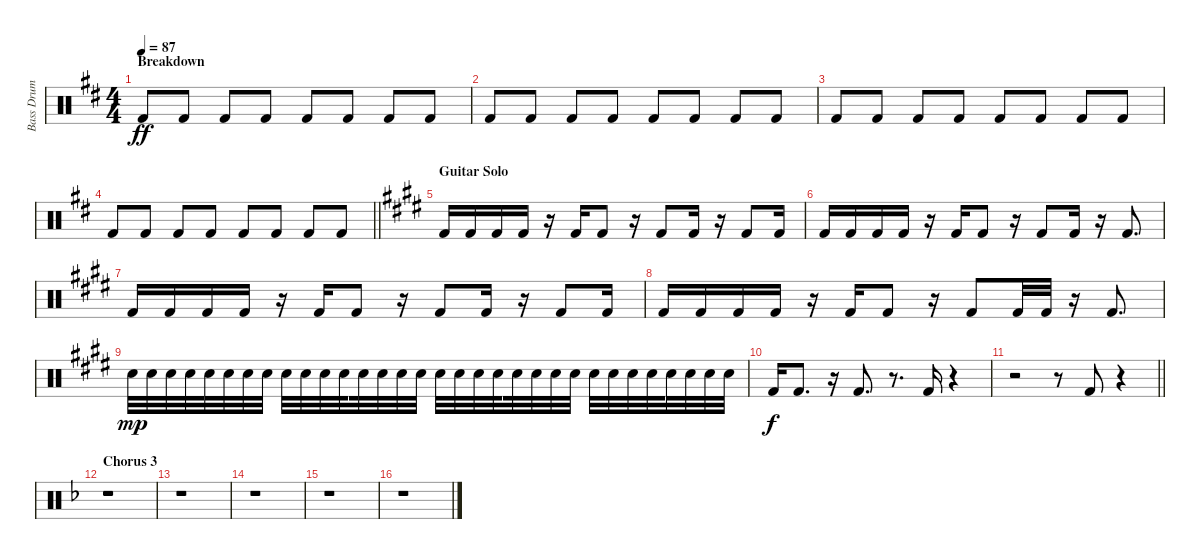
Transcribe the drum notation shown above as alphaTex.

\track ("Bass Drum" "Bass Drum") {instrument percussion}
\staff {score}
\articulation defaults
\ts (4 4)
\section ("" "Breakdown")
\tempo 87
\clef neutral
\ks bminor "Kick (hit) 2".8{dy ff} "Kick (hit) 2".8 "Kick (hit) 2".8 "Kick (hit) 2".8 "Kick (hit) 2".8 "Kick (hit) 2".8 "Kick (hit) 2".8 "Kick (hit) 2".8
|
"Kick (hit) 2".8 "Kick (hit) 2".8 "Kick (hit) 2".8 "Kick (hit) 2".8 "Kick (hit) 2".8 "Kick (hit) 2".8 "Kick (hit) 2".8 "Kick (hit) 2".8 |
"Kick (hit) 2".8 "Kick (hit) 2".8 "Kick (hit) 2".8 "Kick (hit) 2".8 "Kick (hit) 2".8 "Kick (hit) 2".8 "Kick (hit) 2".8 "Kick (hit) 2".8 |
\barLineRight lightlight "Kick (hit) 2".8 "Kick (hit) 2".8 "Kick (hit) 2".8 "Kick (hit) 2".8 "Kick (hit) 2".8 "Kick (hit) 2".8 "Kick (hit) 2".8 "Kick (hit) 2".8
|
\section ("" "Guitar Solo")
\ks c#minor "Kick (hit) 2".16 "Kick (hit) 2".16 "Kick (hit) 2".16 "Kick (hit) 2".16
r.16 "Kick (hit) 2".16 "Kick (hit) 2".8 r.16 "Kick (hit) 2".8 "Kick (hit) 2".16 r.16 "Kick (hit) 2".8 "Kick (hit) 2".16 |
"Kick (hit) 2".16 "Kick (hit) 2".16 "Kick (hit) 2".16 "Kick (hit) 2".16 r.16 "Kick (hit) 2".16 "Kick (hit) 2".8 r.16 "Kick (hit) 2".8 "Kick (hit) 2".16 r.16 "Kick (hit) 2".8{d} |
"Kick (hit) 2".16 "Kick (hit) 2".16 "Kick (hit) 2".16 "Kick (hit) 2".16 r.16 "Kick (hit) 2".16 "Kick (hit) 2".8 r.16 "Kick (hit) 2".8 "Kick (hit) 2".16 r.16 "Kick (hit) 2".8 "Kick (hit) 2".16 |
"Kick (hit) 2".16 "Kick (hit) 2".16 "Kick (hit) 2".16 "Kick (hit) 2".16 r.16 "Kick (hit) 2".16 "Kick (hit) 2".8 r.16 "Kick (hit) 2".8 "Kick (hit) 2".32 "Kick (hit) 2".32 r.16 "Kick (hit) 2".8{d} |
"Electric Snare (hit)".32{dy mp} "Electric Snare (hit)".32 "Electric Snare (hit)".32 "Electric Snare (hit)".32{beam splitsecondary} "Electric Snare (hit)".32 "Electric Snare (hit)".32 "Electric Snare (hit)".32 "Electric Snare (hit)".32 "Electric Snare (hit)".32 "Electric Snare (hit)".32 "Electric Snare (hit)".32 "Electric Snare (hit)".32{beam splitsecondary} "Electric Snare (hit)".32 "Electric Snare (hit)".32 "Electric Snare (hit)".32 "Electric Snare (hit)".32 "Electric Snare (hit)".32 "Electric Snare (hit)".32 "Electric Snare (hit)".32 "Electric Snare (hit)".32{beam splitsecondary} "Electric Snare (hit)".32 "Electric Snare (hit)".32 "Electric Snare (hit)".32 "Electric Snare (hit)".32 "Electric Snare (hit)".32 "Electric Snare (hit)".32 "Electric Snare (hit)".32 "Electric Snare (hit)".32{beam splitsecondary} "Electric Snare (hit)".32 "Electric Snare (hit)".32 "Electric Snare (hit)".32 "Electric Snare (hit)".32 |
"Kick (hit) 2".16{dy f} "Kick (hit) 2".8{d} r.16 "Kick (hit) 2".8{d} r.8{d} "Kick (hit) 2".16 r.4 |
\barLineRight lightlight
r.2 r.8 "Kick (hit) 2".8 r.4 |
\section ("" "Chorus 3")
\ks dminor
r.1 |
r.1 |
r.1 |
r.1 |
r.1
